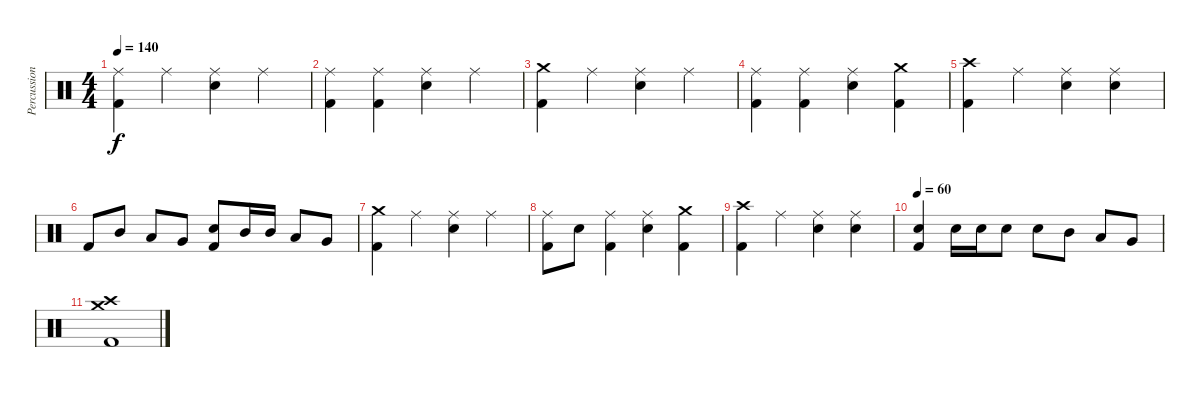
\track ("Percussion" "Percussion") {instrument percussion}
\staff {score}
\articulation defaults
\ts (4 4)
\tempo 140
\clef neutral
\ks c
("Kick (hit) 2" "Ride (middle)").4{dy f} "Ride (middle)".4 ("Snare (hit) 2" "Ride (middle)").4 "Ride (middle)".4 |
("Kick (hit) 2" "Ride (middle)").4 ("Kick (hit) 2" "Ride (middle)").4 ("Snare (hit) 2" "Ride (middle)").4 "Ride (middle)".4 |
("Kick (hit) 2" "Crash medium (hit)").4 "Ride (middle)".4 ("Snare (hit) 2" "Ride (middle)").4 "Ride (middle)".4 |
("Kick (hit) 2" "Ride (middle)").4 ("Kick (hit) 2" "Ride (middle)").4 ("Snare (hit) 2" "Ride (middle)").4 ("Kick (hit) 2" "Crash medium (hit)").4 |
("Kick (hit) 2" "Crash high (hit)").4 "Ride (middle)".4 ("Snare (hit) 2" "Ride (middle)").4 ("Snare (hit) 2" "Ride (middle)").4 |
"Kick (hit) 2".8 "Mid Tom (hit)".8 "Low Tom (hit)".8 "Very Low Tom (hit)".8 ("Kick (hit) 2" "Snare (hit) 2").8 "Mid Tom (hit)".16 "Mid Tom (hit)".16 "Low Tom (hit)".8 "Very Low Tom (hit)".8 |
("Kick (hit) 2" "Crash medium (hit)").4 "Ride (middle)".4 ("Snare (hit) 2" "Ride (middle)").4 "Ride (middle)".4 |
("Kick (hit) 2" "Ride (middle)").8 "Snare (hit) 2".8 ("Kick (hit) 2" "Ride (middle)").4 ("Snare (hit) 2" "Ride (middle)").4 ("Kick (hit) 2" "Crash medium (hit)").4 |
("Kick (hit) 2" "Crash high (hit)").4 "Ride (middle)".4 ("Snare (hit) 2" "Ride (middle)").4 ("Snare (hit) 2" "Ride (middle)").4 |
\tempo 60
("Kick (hit) 2" "Snare (hit) 2").4 "Snare (hit) 2".16 "Snare (hit) 2".16 "Snare (hit) 2".8 "Snare (hit) 2".8 "Mid Tom (hit)".8 "Low Tom (hit)".8 "Very Low Tom (hit)".8 |
("Kick (hit) 2" "Crash high (hit)" "Crash medium (hit)").1
